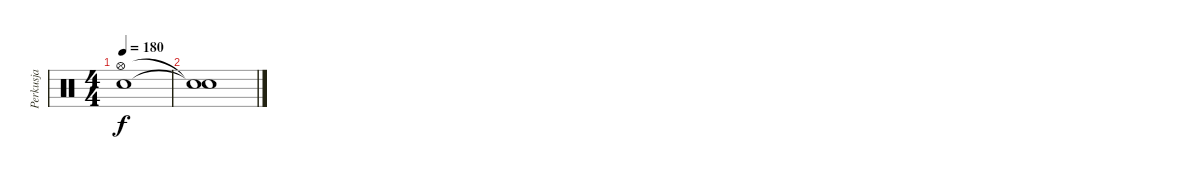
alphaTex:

\track ("Perkusja" "Perkusja") {instrument percussion}
\staff {score}
\articulation defaults
\ts (4 4)
\tempo 180
\clef neutral
\ks c
("Electric Snare (hit)" "Hi-Hat (open)").1{dy f} |
("Snare (hit)"{t} "Snare (hit)"{t}).1
